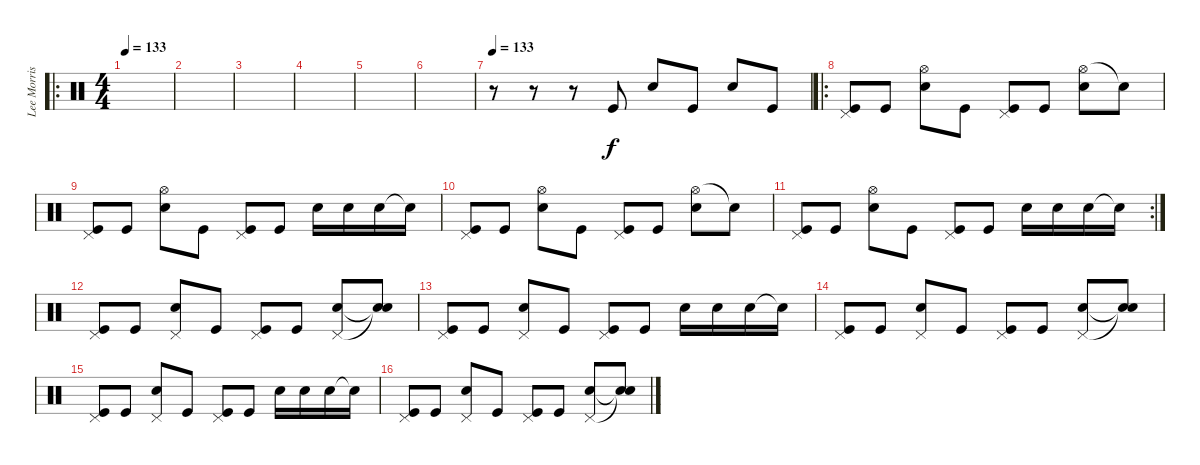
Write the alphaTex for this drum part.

\track ("Lee Morris" "Lee Morris") {instrument percussion}
\staff {score}
\articulation defaults
\ro
\ts (4 4)
\tempo 133
\tempo 113
\tempo 133
\clef neutral
\ks c
|
|
|
|
|
|
\tempo 133
r.8 r.8 r.8 "Kick (hit)".8 "Electric Snare (hit)".8 "Kick (hit)".8 "Electric Snare (hit)".8 "Kick (hit)".8 |
\ro
("Pedal Hi-Hat (hit)" "Kick (hit)").8 "Kick (hit)".8 ("Hi-Hat (open)" "Electric Snare (hit)").8 "Kick (hit)".8 ("Pedal Hi-Hat (hit)" "Kick (hit)").8 "Kick (hit)".8 ("Hi-Hat (open)" "Electric Snare (hit)").8 "Snare (hit)"{t}.8 |
("Pedal Hi-Hat (hit)" "Kick (hit)").8 "Kick (hit)".8 ("Hi-Hat (open)" "Electric Snare (hit)").8 "Kick (hit)".8 ("Pedal Hi-Hat (hit)" "Kick (hit)").8 "Kick (hit)".8 "Electric Snare (hit)".16 "Electric Snare (hit)".16 "Electric Snare (hit)".16 "Snare (hit)"{t}.16 |
("Pedal Hi-Hat (hit)" "Kick (hit)").8 "Kick (hit)".8 ("Hi-Hat (open)" "Electric Snare (hit)").8 "Kick (hit)".8 ("Pedal Hi-Hat (hit)" "Kick (hit)").8 "Kick (hit)".8 ("Hi-Hat (open)" "Electric Snare (hit)").8 "Snare (hit)"{t}.8 |
\rc 2
("Pedal Hi-Hat (hit)" "Kick (hit)").8 "Kick (hit)".8 ("Hi-Hat (open)" "Electric Snare (hit)").8 "Kick (hit)".8 ("Pedal Hi-Hat (hit)" "Kick (hit)").8 "Kick (hit)".8 "Electric Snare (hit)".16 "Electric Snare (hit)".16 "Electric Snare (hit)".16 "Snare (hit)"{t}.16 |
("Pedal Hi-Hat (hit)" "Kick (hit)").8 "Kick (hit)".8 ("Electric Snare (hit)" "Pedal Hi-Hat (hit)").8 "Kick (hit)".8 ("Pedal Hi-Hat (hit)" "Kick (hit)").8 "Kick (hit)".8 ("Electric Snare (hit)" "Pedal Hi-Hat (hit)").8 ("Snare (hit)"{t} "Snare (hit)"{t}).8 |
("Pedal Hi-Hat (hit)" "Kick (hit)").8 "Kick (hit)".8 ("Electric Snare (hit)" "Pedal Hi-Hat (hit)").8 "Kick (hit)".8 ("Pedal Hi-Hat (hit)" "Kick (hit)").8 "Kick (hit)".8 "Electric Snare (hit)".16 "Electric Snare (hit)".16 "Electric Snare (hit)".16 "Snare (hit)"{t}.16 |
("Pedal Hi-Hat (hit)" "Kick (hit)").8 "Kick (hit)".8 ("Electric Snare (hit)" "Pedal Hi-Hat (hit)").8 "Kick (hit)".8 ("Pedal Hi-Hat (hit)" "Kick (hit)").8 "Kick (hit)".8 ("Electric Snare (hit)" "Pedal Hi-Hat (hit)").8 ("Snare (hit)"{t} "Snare (hit)"{t}).8 |
("Pedal Hi-Hat (hit)" "Kick (hit)").8 "Kick (hit)".8 ("Electric Snare (hit)" "Pedal Hi-Hat (hit)").8 "Kick (hit)".8 ("Pedal Hi-Hat (hit)" "Kick (hit)").8 "Kick (hit)".8 "Electric Snare (hit)".16 "Electric Snare (hit)".16 "Electric Snare (hit)".16 "Snare (hit)"{t}.16 |
("Pedal Hi-Hat (hit)" "Kick (hit)").8 "Kick (hit)".8 ("Electric Snare (hit)" "Pedal Hi-Hat (hit)").8 "Kick (hit)".8 ("Pedal Hi-Hat (hit)" "Kick (hit)").8 "Kick (hit)".8 ("Electric Snare (hit)" "Pedal Hi-Hat (hit)").8 ("Snare (hit)"{t} "Snare (hit)"{t}).8
